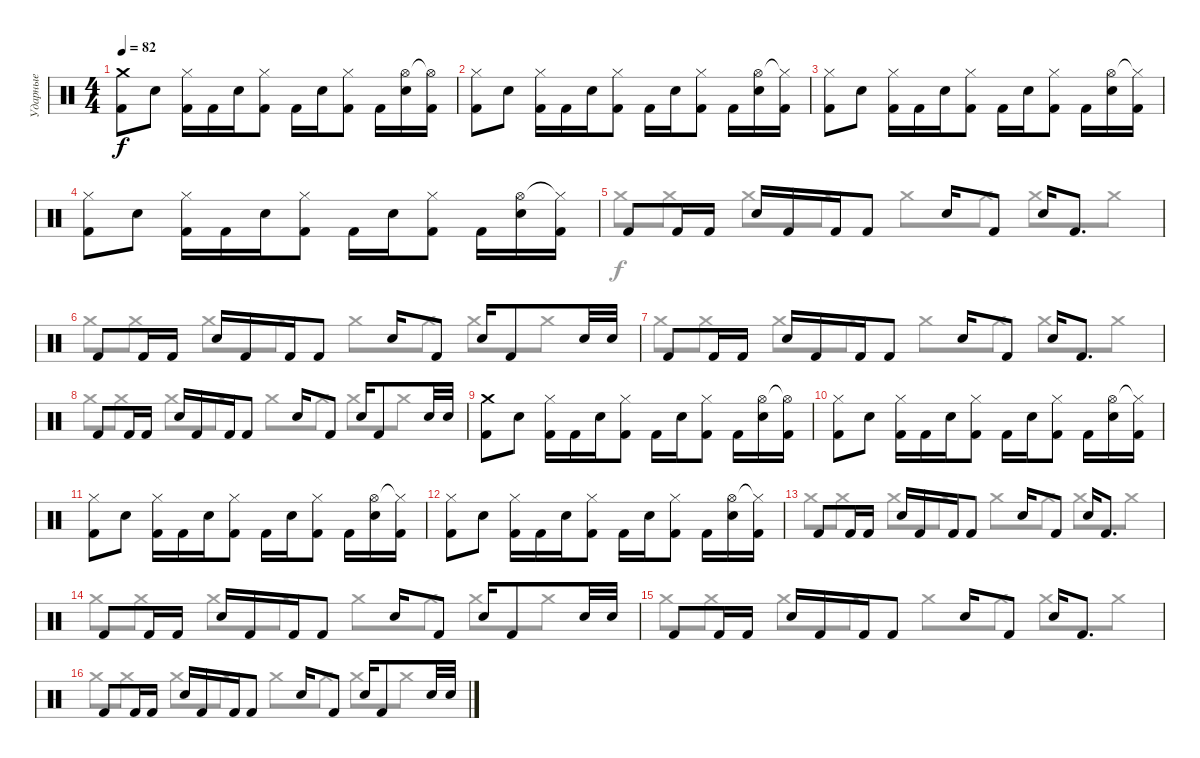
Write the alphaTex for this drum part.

\track ("Ударные" "Ударные") {instrument percussion}
\staff {score}
\articulation defaults
\voice
\ts (4 4)
\tempo 82
\clef neutral
\ks c
("Crash medium (hit)" "Kick (hit) 2").8{dy f} "Snare (hit) 2".8 ("Hi-Hat (closed)" "Kick (hit) 2").16 "Kick (hit) 2".16 "Snare (hit) 2".16 ("Hi-Hat (closed)" "Kick (hit) 2").8 "Kick (hit) 2".16 "Snare (hit) 2".16 ("Hi-Hat (closed)" "Kick (hit) 2").8 "Kick (hit) 2".16 ("Hi-Hat (open)" "Snare (hit) 2").16 ("Hi-Hat (open)"{t} "Kick (hit) 2").16 |
("Hi-Hat (closed)" "Kick (hit) 2").8 "Snare (hit) 2".8 ("Hi-Hat (closed)" "Kick (hit) 2").16 "Kick (hit) 2".16 "Snare (hit) 2".16 ("Hi-Hat (closed)" "Kick (hit) 2").8 "Kick (hit) 2".16 "Snare (hit) 2".16 ("Hi-Hat (closed)" "Kick (hit) 2").8 "Kick (hit) 2".16 ("Hi-Hat (open)" "Snare (hit) 2").16 ("Hi-Hat (closed)"{t} "Kick (hit) 2").16 |
("Hi-Hat (closed)" "Kick (hit) 2").8 "Snare (hit) 2".8 ("Hi-Hat (closed)" "Kick (hit) 2").16 "Kick (hit) 2".16 "Snare (hit) 2".16 ("Hi-Hat (closed)" "Kick (hit) 2").8 "Kick (hit) 2".16 "Snare (hit) 2".16 ("Hi-Hat (closed)" "Kick (hit) 2").8 "Kick (hit) 2".16 ("Hi-Hat (open)" "Snare (hit) 2").16 ("Hi-Hat (closed)"{t} "Kick (hit) 2").16 |
("Hi-Hat (closed)" "Kick (hit) 2").8 "Snare (hit) 2".8 ("Hi-Hat (closed)" "Kick (hit) 2").16 "Kick (hit) 2".16 "Snare (hit) 2".16 ("Hi-Hat (closed)" "Kick (hit) 2").8 "Kick (hit) 2".16 "Snare (hit) 2".16 ("Hi-Hat (closed)" "Kick (hit) 2").8 "Kick (hit) 2".16 ("Hi-Hat (open)" "Snare (hit) 2").16 ("Hi-Hat (closed)"{t} "Kick (hit) 2").16 |
"Kick (hit) 2".8 "Kick (hit) 2".16 "Kick (hit) 2".16 "Snare (hit) 2".16 "Kick (hit) 2".16 "Kick (hit) 2".16 "Kick (hit) 2".8 "Snare (hit) 2".16 "Kick (hit) 2".8 "Snare (hit) 2".16 "Kick (hit) 2".8{d} |
"Kick (hit) 2".8 "Kick (hit) 2".16 "Kick (hit) 2".16 "Snare (hit) 2".16 "Kick (hit) 2".16 "Kick (hit) 2".16 "Kick (hit) 2".8 "Snare (hit) 2".16 "Kick (hit) 2".8 "Snare (hit) 2".16 "Kick (hit) 2".8 "Snare (hit) 2".32 "Snare (hit) 2".32 |
"Kick (hit) 2".8 "Kick (hit) 2".16 "Kick (hit) 2".16 "Snare (hit) 2".16 "Kick (hit) 2".16 "Kick (hit) 2".16 "Kick (hit) 2".8 "Snare (hit) 2".16 "Kick (hit) 2".8 "Snare (hit) 2".16 "Kick (hit) 2".8{d} |
"Kick (hit) 2".8 "Kick (hit) 2".16 "Kick (hit) 2".16 "Snare (hit) 2".16 "Kick (hit) 2".16 "Kick (hit) 2".16 "Kick (hit) 2".8 "Snare (hit) 2".16 "Kick (hit) 2".8 "Snare (hit) 2".16 "Kick (hit) 2".8 "Snare (hit) 2".32 "Snare (hit) 2".32 |
("Crash medium (hit)" "Kick (hit) 2").8 "Snare (hit) 2".8 ("Hi-Hat (closed)" "Kick (hit) 2").16 "Kick (hit) 2".16 "Snare (hit) 2".16 ("Hi-Hat (closed)" "Kick (hit) 2").8 "Kick (hit) 2".16 "Snare (hit) 2".16 ("Hi-Hat (closed)" "Kick (hit) 2").8 "Kick (hit) 2".16 ("Hi-Hat (open)" "Snare (hit) 2").16 ("Hi-Hat (open)"{t} "Kick (hit) 2").16 |
("Hi-Hat (closed)" "Kick (hit) 2").8 "Snare (hit) 2".8 ("Hi-Hat (closed)" "Kick (hit) 2").16 "Kick (hit) 2".16 "Snare (hit) 2".16 ("Hi-Hat (closed)" "Kick (hit) 2").8 "Kick (hit) 2".16 "Snare (hit) 2".16 ("Hi-Hat (closed)" "Kick (hit) 2").8 "Kick (hit) 2".16 ("Hi-Hat (open)" "Snare (hit) 2").16 ("Hi-Hat (closed)"{t} "Kick (hit) 2").16 |
("Hi-Hat (closed)" "Kick (hit) 2").8 "Snare (hit) 2".8 ("Hi-Hat (closed)" "Kick (hit) 2").16 "Kick (hit) 2".16 "Snare (hit) 2".16 ("Hi-Hat (closed)" "Kick (hit) 2").8 "Kick (hit) 2".16 "Snare (hit) 2".16 ("Hi-Hat (closed)" "Kick (hit) 2").8 "Kick (hit) 2".16 ("Hi-Hat (open)" "Snare (hit) 2").16 ("Hi-Hat (closed)"{t} "Kick (hit) 2").16 |
("Hi-Hat (closed)" "Kick (hit) 2").8 "Snare (hit) 2".8 ("Hi-Hat (closed)" "Kick (hit) 2").16 "Kick (hit) 2".16 "Snare (hit) 2".16 ("Hi-Hat (closed)" "Kick (hit) 2").8 "Kick (hit) 2".16 "Snare (hit) 2".16 ("Hi-Hat (closed)" "Kick (hit) 2").8 "Kick (hit) 2".16 ("Hi-Hat (open)" "Snare (hit) 2").16 ("Hi-Hat (closed)"{t} "Kick (hit) 2").16 |
"Kick (hit) 2".8 "Kick (hit) 2".16 "Kick (hit) 2".16 "Snare (hit) 2".16 "Kick (hit) 2".16 "Kick (hit) 2".16 "Kick (hit) 2".8 "Snare (hit) 2".16 "Kick (hit) 2".8 "Snare (hit) 2".16 "Kick (hit) 2".8{d} |
"Kick (hit) 2".8 "Kick (hit) 2".16 "Kick (hit) 2".16 "Snare (hit) 2".16 "Kick (hit) 2".16 "Kick (hit) 2".16 "Kick (hit) 2".8 "Snare (hit) 2".16 "Kick (hit) 2".8 "Snare (hit) 2".16 "Kick (hit) 2".8 "Snare (hit) 2".32 "Snare (hit) 2".32 |
"Kick (hit) 2".8 "Kick (hit) 2".16 "Kick (hit) 2".16 "Snare (hit) 2".16 "Kick (hit) 2".16 "Kick (hit) 2".16 "Kick (hit) 2".8 "Snare (hit) 2".16 "Kick (hit) 2".8 "Snare (hit) 2".16 "Kick (hit) 2".8{d} |
"Kick (hit) 2".8 "Kick (hit) 2".16 "Kick (hit) 2".16 "Snare (hit) 2".16 "Kick (hit) 2".16 "Kick (hit) 2".16 "Kick (hit) 2".8 "Snare (hit) 2".16 "Kick (hit) 2".8 "Snare (hit) 2".16 "Kick (hit) 2".8 "Snare (hit) 2".32 "Snare (hit) 2".32
\voice
\clef neutral
\ottava regular
\simile none
\ks c
|
|
|
|
"Crash medium (hit)".8 "Crash medium (hit)".8 "Crash medium (hit)".8 "Crash medium (hit)".8 "Crash medium (hit)".8 "Crash medium (hit)".8 "Crash medium (hit)".8 "Crash medium (hit)".8 |
"Crash medium (hit)".8 "Crash medium (hit)".8 "Crash medium (hit)".8 "Crash medium (hit)".8 "Crash medium (hit)".8 "Crash medium (hit)".8 "Crash medium (hit)".8 "Crash medium (hit)".8 |
"Crash medium (hit)".8 "Crash medium (hit)".8 "Crash medium (hit)".8 "Crash medium (hit)".8 "Crash medium (hit)".8 "Crash medium (hit)".8 "Crash medium (hit)".8 "Crash medium (hit)".8 |
"Crash medium (hit)".8 "Crash medium (hit)".8 "Crash medium (hit)".8 "Crash medium (hit)".8 "Crash medium (hit)".8 "Crash medium (hit)".8 "Crash medium (hit)".8 "Crash medium (hit)".8 |
|
|
|
|
"Crash medium (hit)".8 "Crash medium (hit)".8 "Crash medium (hit)".8 "Crash medium (hit)".8 "Crash medium (hit)".8 "Crash medium (hit)".8 "Crash medium (hit)".8 "Crash medium (hit)".8 |
"Crash medium (hit)".8 "Crash medium (hit)".8 "Crash medium (hit)".8 "Crash medium (hit)".8 "Crash medium (hit)".8 "Crash medium (hit)".8 "Crash medium (hit)".8 "Crash medium (hit)".8 |
"Crash medium (hit)".8 "Crash medium (hit)".8 "Crash medium (hit)".8 "Crash medium (hit)".8 "Crash medium (hit)".8 "Crash medium (hit)".8 "Crash medium (hit)".8 "Crash medium (hit)".8 |
"Crash medium (hit)".8 "Crash medium (hit)".8 "Crash medium (hit)".8 "Crash medium (hit)".8 "Crash medium (hit)".8 "Crash medium (hit)".8 "Crash medium (hit)".8 "Crash medium (hit)".8
